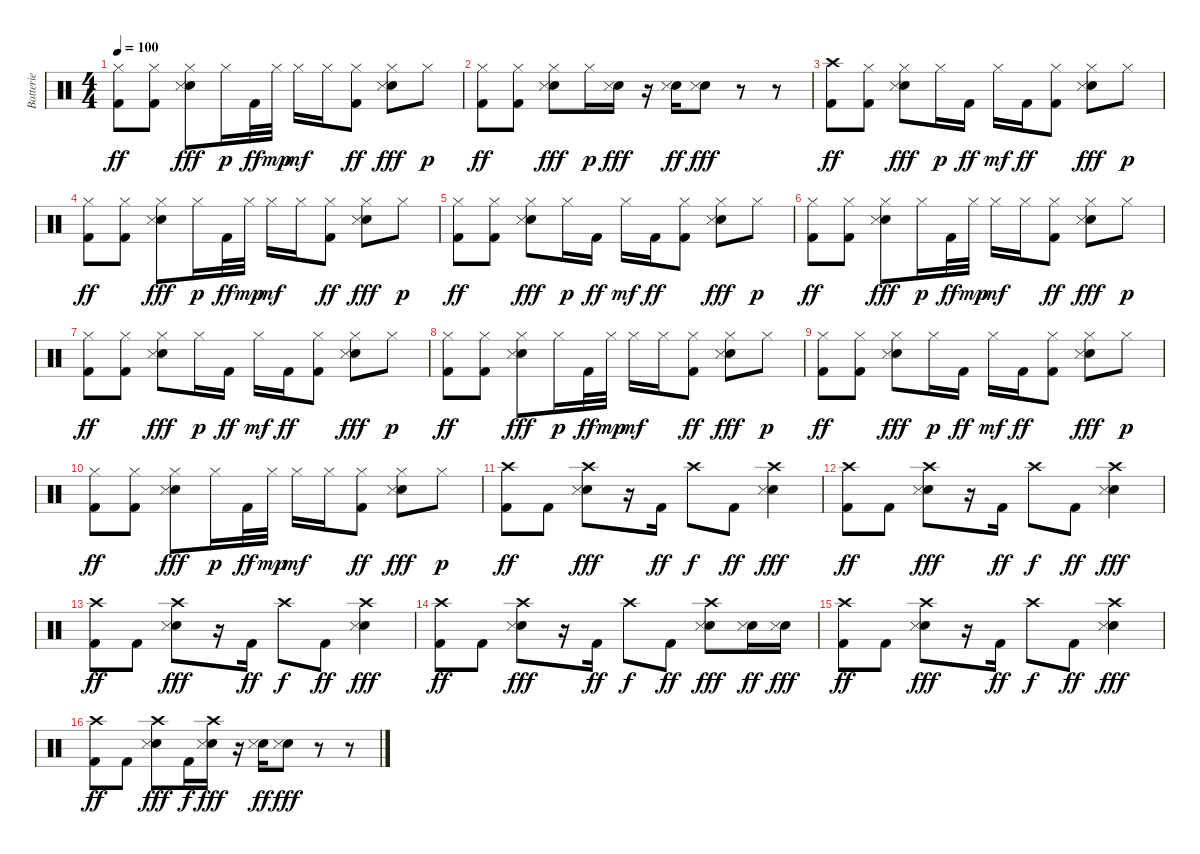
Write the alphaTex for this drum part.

\track ("Batterie" "Batterie") {instrument percussion}
\staff {score}
\articulation defaults
\ts (4 4)
\tempo 100
\clef neutral
\ks c
("Hi-Hat (closed)" "Kick (hit) 2").8{dy ff} ("Hi-Hat (closed)" "Kick (hit) 2").8 ("Hi-Hat (closed)" "Snare (hit) 2" "Snare (side stick) 3").8{dy fff} "Hi-Hat (closed)".16{dy p} "Kick (hit) 2".32{dy ff} "Hi-Hat (closed)".32{dy mp} "Hi-Hat (closed)".16{dy mf} "Hi-Hat (closed)".16 ("Hi-Hat (closed)" "Kick (hit) 2").8{dy ff} ("Hi-Hat (closed)" "Snare (hit) 2" "Snare (side stick) 3").8{dy fff} "Hi-Hat (closed)".8{dy p} |
("Hi-Hat (closed)" "Kick (hit) 2").8{dy ff} ("Hi-Hat (closed)" "Kick (hit) 2").8 ("Hi-Hat (closed)" "Snare (hit) 2" "Snare (side stick) 3").8{dy fff} "Hi-Hat (closed)".16{dy p} ("Snare (hit) 2" "Snare (side stick) 3").16{dy fff} r.16 ("Snare (hit) 2" "Snare (side stick) 3").16{dy ff} ("Snare (hit) 2" "Snare (side stick) 3").8{dy fff} r.8 r.8 |
("Crash high (hit)" "Kick (hit) 2").8{dy ff} ("Hi-Hat (closed)" "Kick (hit) 2").8 ("Hi-Hat (closed)" "Snare (hit) 2" "Snare (side stick) 3").8{dy fff} "Hi-Hat (closed)".16{dy p} "Kick (hit) 2".16{dy ff} "Hi-Hat (closed)".16{dy mf} "Kick (hit) 2".16{dy ff} ("Hi-Hat (closed)" "Kick (hit) 2").8 ("Hi-Hat (closed)" "Snare (hit) 2" "Snare (side stick) 3").8{dy fff} "Hi-Hat (closed)".8{dy p} |
("Hi-Hat (closed)" "Kick (hit) 2").8{dy ff} ("Hi-Hat (closed)" "Kick (hit) 2").8 ("Hi-Hat (closed)" "Snare (hit) 2" "Snare (side stick) 3").8{dy fff} "Hi-Hat (closed)".16{dy p} "Kick (hit) 2".32{dy ff} "Hi-Hat (closed)".32{dy mp} "Hi-Hat (closed)".16{dy mf} "Hi-Hat (closed)".16 ("Hi-Hat (closed)" "Kick (hit) 2").8{dy ff} ("Hi-Hat (closed)" "Snare (hit) 2" "Snare (side stick) 3").8{dy fff} "Hi-Hat (closed)".8{dy p} |
("Hi-Hat (closed)" "Kick (hit) 2").8{dy ff} ("Hi-Hat (closed)" "Kick (hit) 2").8 ("Hi-Hat (closed)" "Snare (hit) 2" "Snare (side stick) 3").8{dy fff} "Hi-Hat (closed)".16{dy p} "Kick (hit) 2".16{dy ff} "Hi-Hat (closed)".16{dy mf} "Kick (hit) 2".16{dy ff} ("Hi-Hat (closed)" "Kick (hit) 2").8 ("Hi-Hat (closed)" "Snare (hit) 2" "Snare (side stick) 3").8{dy fff} "Hi-Hat (closed)".8{dy p} |
("Hi-Hat (closed)" "Kick (hit) 2").8{dy ff} ("Hi-Hat (closed)" "Kick (hit) 2").8 ("Hi-Hat (closed)" "Snare (hit) 2" "Snare (side stick) 3").8{dy fff} "Hi-Hat (closed)".16{dy p} "Kick (hit) 2".32{dy ff} "Hi-Hat (closed)".32{dy mp} "Hi-Hat (closed)".16{dy mf} "Hi-Hat (closed)".16 ("Hi-Hat (closed)" "Kick (hit) 2").8{dy ff} ("Hi-Hat (closed)" "Snare (hit) 2" "Snare (side stick) 3").8{dy fff} "Hi-Hat (closed)".8{dy p} |
("Hi-Hat (closed)" "Kick (hit) 2").8{dy ff} ("Hi-Hat (closed)" "Kick (hit) 2").8 ("Hi-Hat (closed)" "Snare (hit) 2" "Snare (side stick) 3").8{dy fff} "Hi-Hat (closed)".16{dy p} "Kick (hit) 2".16{dy ff} "Hi-Hat (closed)".16{dy mf} "Kick (hit) 2".16{dy ff} ("Hi-Hat (closed)" "Kick (hit) 2").8 ("Hi-Hat (closed)" "Snare (hit) 2" "Snare (side stick) 3").8{dy fff} "Hi-Hat (closed)".8{dy p} |
("Hi-Hat (closed)" "Kick (hit) 2").8{dy ff} ("Hi-Hat (closed)" "Kick (hit) 2").8 ("Hi-Hat (closed)" "Snare (hit) 2" "Snare (side stick) 3").8{dy fff} "Hi-Hat (closed)".16{dy p} "Kick (hit) 2".32{dy ff} "Hi-Hat (closed)".32{dy mp} "Hi-Hat (closed)".16{dy mf} "Hi-Hat (closed)".16 ("Hi-Hat (closed)" "Kick (hit) 2").8{dy ff} ("Hi-Hat (closed)" "Snare (hit) 2" "Snare (side stick) 3").8{dy fff} "Hi-Hat (closed)".8{dy p} |
("Hi-Hat (closed)" "Kick (hit) 2").8{dy ff} ("Hi-Hat (closed)" "Kick (hit) 2").8 ("Hi-Hat (closed)" "Snare (hit) 2" "Snare (side stick) 3").8{dy fff} "Hi-Hat (closed)".16{dy p} "Kick (hit) 2".16{dy ff} "Hi-Hat (closed)".16{dy mf} "Kick (hit) 2".16{dy ff} ("Hi-Hat (closed)" "Kick (hit) 2").8 ("Hi-Hat (closed)" "Snare (hit) 2" "Snare (side stick) 3").8{dy fff} "Hi-Hat (closed)".8{dy p} |
("Hi-Hat (closed)" "Kick (hit) 2").8{dy ff} ("Hi-Hat (closed)" "Kick (hit) 2").8 ("Hi-Hat (closed)" "Snare (hit) 2" "Snare (side stick) 3").8{dy fff} "Hi-Hat (closed)".16{dy p} "Kick (hit) 2".32{dy ff} "Hi-Hat (closed)".32{dy mp} "Hi-Hat (closed)".16{dy mf} "Hi-Hat (closed)".16 ("Hi-Hat (closed)" "Kick (hit) 2").8{dy ff} ("Hi-Hat (closed)" "Snare (hit) 2" "Snare (side stick) 3").8{dy fff} "Hi-Hat (closed)".8{dy p} |
("Crash high (hit)" "Kick (hit) 2").8{dy ff} "Kick (hit) 2".8 ("Crash high (hit)" "Snare (hit) 2" "Snare (side stick) 3").8{dy fff} r.16 "Kick (hit) 2".16{dy ff} "Crash high (hit)".8{dy f} "Kick (hit) 2".8{dy ff} ("Crash high (hit)" "Snare (hit) 2" "Snare (side stick) 3").4{dy fff} |
("Crash high (hit)" "Kick (hit) 2").8{dy ff} "Kick (hit) 2".8 ("Crash high (hit)" "Snare (hit) 2" "Snare (side stick) 3").8{dy fff} r.16 "Kick (hit) 2".16{dy ff} "Crash high (hit)".8{dy f} "Kick (hit) 2".8{dy ff} ("Crash high (hit)" "Snare (hit) 2" "Snare (side stick) 3").4{dy fff} |
("Crash high (hit)" "Kick (hit) 2").8{dy ff} "Kick (hit) 2".8 ("Crash high (hit)" "Snare (hit) 2" "Snare (side stick) 3").8{dy fff} r.16 "Kick (hit) 2".16{dy ff} "Crash high (hit)".8{dy f} "Kick (hit) 2".8{dy ff} ("Crash high (hit)" "Snare (hit) 2" "Snare (side stick) 3").4{dy fff} |
("Crash high (hit)" "Kick (hit) 2").8{dy ff} "Kick (hit) 2".8 ("Crash high (hit)" "Snare (hit) 2" "Snare (side stick) 3").8{dy fff} r.16 "Kick (hit) 2".16{dy ff} "Crash high (hit)".8{dy f} "Kick (hit) 2".8{dy ff} ("Crash high (hit)" "Snare (hit) 2" "Snare (side stick) 3").8{dy fff} ("Snare (hit) 2" "Snare (side stick) 3").16{dy ff} ("Snare (hit) 2" "Snare (side stick) 3").16{dy fff} |
("Crash high (hit)" "Kick (hit) 2").8{dy ff} "Kick (hit) 2".8 ("Crash high (hit)" "Snare (hit) 2" "Snare (side stick) 3").8{dy fff} r.16 "Kick (hit) 2".16{dy ff} "Crash high (hit)".8{dy f} "Kick (hit) 2".8{dy ff} ("Crash high (hit)" "Snare (hit) 2" "Snare (side stick) 3").4{dy fff} |
("Crash high (hit)" "Kick (hit) 2").8{dy ff} "Kick (hit) 2".8 ("Crash high (hit)" "Snare (hit) 2" "Snare (side stick) 3").8{dy fff} "Kick (hit) 2".16{dy f} ("Crash high (hit)" "Snare (hit) 2" "Snare (side stick) 3").16{dy fff} r.16 ("Snare (hit) 2" "Snare (side stick) 3").16{dy ff} ("Snare (hit) 2" "Snare (side stick) 3").8{dy fff} r.8 r.8
